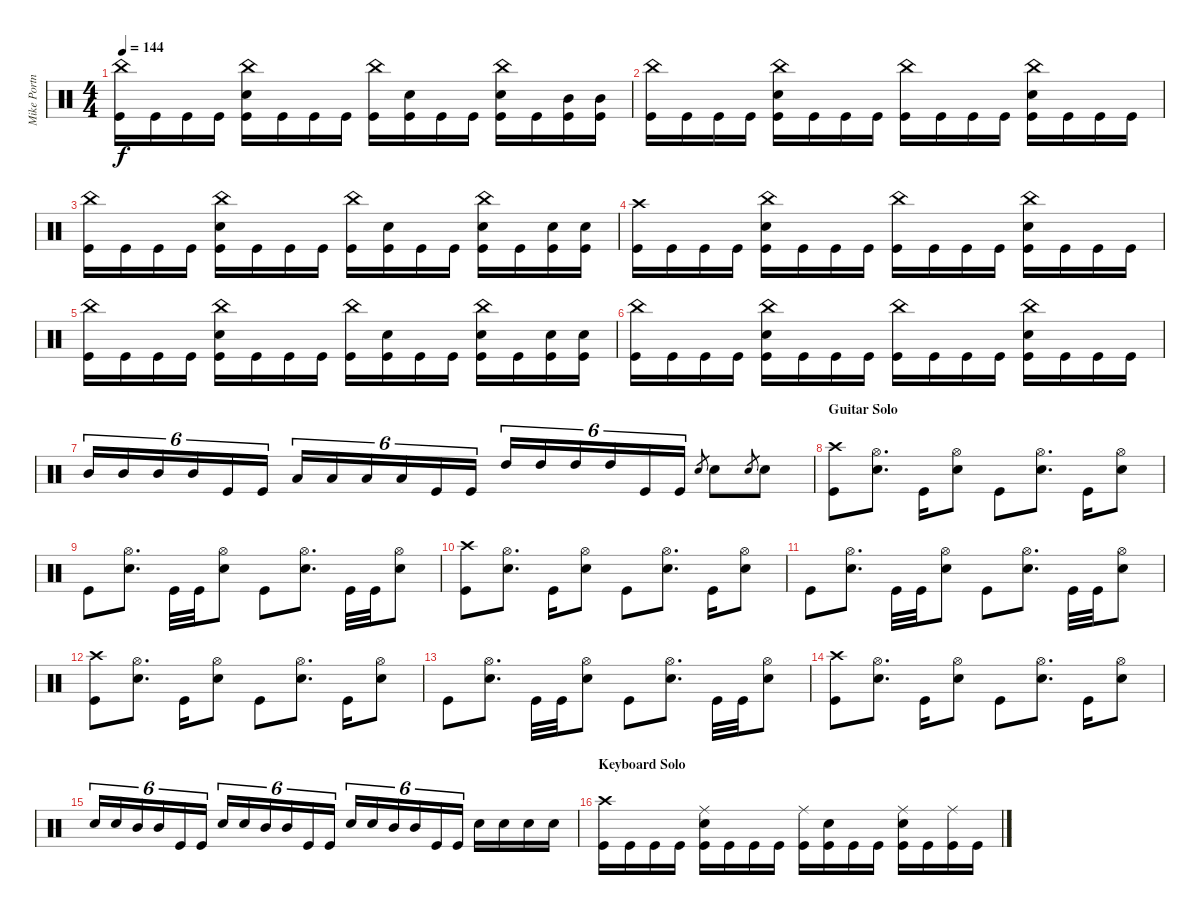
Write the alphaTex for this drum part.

\track ("Mike Portnoy" "Mike Portn") {instrument percussion}
\staff {score}
\articulation defaults
\ts (4 4)
\tempo 144
\clef neutral
\ks c
("China (hit)" "Kick (hit)").16{dy f} "Kick (hit)".16 "Kick (hit)".16 "Kick (hit)".16 ("China (hit)" "Electric Snare (hit)" "Kick (hit)").16 "Kick (hit)".16 "Kick (hit)".16 "Kick (hit)".16 ("China (hit)" "Kick (hit)").16 ("Electric Snare (hit)" "Kick (hit)").16 "Kick (hit)".16 "Kick (hit)".16 ("China (hit)" "Electric Snare (hit)" "Kick (hit)").16 "Kick (hit)".16 ("Mid Tom (hit)" "Kick (hit)").16 ("Mid Tom (hit)" "Kick (hit)").16 |
("China (hit)" "Kick (hit)").16 "Kick (hit)".16 "Kick (hit)".16 "Kick (hit)".16 ("China (hit)" "Electric Snare (hit)" "Kick (hit)").16 "Kick (hit)".16 "Kick (hit)".16 "Kick (hit)".16 ("China (hit)" "Kick (hit)").16 "Kick (hit)".16 "Kick (hit)".16 "Kick (hit)".16 ("China (hit)" "Electric Snare (hit)" "Kick (hit)").16 "Kick (hit)".16 "Kick (hit)".16 "Kick (hit)".16 |
("China (hit)" "Kick (hit)").16 "Kick (hit)".16 "Kick (hit)".16 "Kick (hit)".16 ("China (hit)" "Electric Snare (hit)" "Kick (hit)").16 "Kick (hit)".16 "Kick (hit)".16 "Kick (hit)".16 ("China (hit)" "Kick (hit)").16 ("Electric Snare (hit)" "Kick (hit)").16 "Kick (hit)".16 "Kick (hit)".16 ("China (hit)" "Electric Snare (hit)" "Kick (hit)").16 "Kick (hit)".16 ("Electric Snare (hit)" "Kick (hit)").16 ("Electric Snare (hit)" "Kick (hit)").16 |
("Crash high (hit)" "Kick (hit)").16 "Kick (hit)".16 "Kick (hit)".16 "Kick (hit)".16 ("China (hit)" "Electric Snare (hit)" "Kick (hit)").16 "Kick (hit)".16 "Kick (hit)".16 "Kick (hit)".16 ("China (hit)" "Kick (hit)").16 "Kick (hit)".16 "Kick (hit)".16 "Kick (hit)".16 ("China (hit)" "Electric Snare (hit)" "Kick (hit)").16 "Kick (hit)".16 "Kick (hit)".16 "Kick (hit)".16 |
("China (hit)" "Kick (hit)").16 "Kick (hit)".16 "Kick (hit)".16 "Kick (hit)".16 ("China (hit)" "Electric Snare (hit)" "Kick (hit)").16 "Kick (hit)".16 "Kick (hit)".16 "Kick (hit)".16 ("China (hit)" "Kick (hit)").16 ("Electric Snare (hit)" "Kick (hit)").16 "Kick (hit)".16 "Kick (hit)".16 ("China (hit)" "Electric Snare (hit)" "Kick (hit)").16 "Kick (hit)".16 ("Electric Snare (hit)" "Kick (hit)").16 ("Electric Snare (hit)" "Kick (hit)").16 |
("China (hit)" "Kick (hit)").16 "Kick (hit)".16 "Kick (hit)".16 "Kick (hit)".16 ("China (hit)" "Electric Snare (hit)" "Kick (hit)").16 "Kick (hit)".16 "Kick (hit)".16 "Kick (hit)".16 ("China (hit)" "Kick (hit)").16 "Kick (hit)".16 "Kick (hit)".16 "Kick (hit)".16 ("China (hit)" "Electric Snare (hit)" "Kick (hit)").16 "Kick (hit)".16 "Kick (hit)".16 "Kick (hit)".16 |
"Mid Tom (hit)".16{tu (6 4)} "Mid Tom (hit)".16{tu (6 4)} "Mid Tom (hit)".16{tu (6 4)} "Mid Tom (hit)".16{tu (6 4)} "Kick (hit)".16{tu (6 4)} "Kick (hit)".16{tu (6 4)} "Low Tom (hit)".16{tu (6 4)} "Low Tom (hit)".16{tu (6 4)} "Low Tom (hit)".16{tu (6 4)} "Low Tom (hit)".16{tu (6 4)} "Kick (hit)".16{tu (6 4)} "Kick (hit)".16{tu (6 4)} "High Tom (hit)".16{tu (6 4)} "High Tom (hit)".16{tu (6 4)} "High Tom (hit)".16{tu (6 4)} "High Tom (hit)".16{tu (6 4)} "Kick (hit)".16{tu (6 4)} "Kick (hit)".16{tu (6 4)} "Electric Snare (hit)".8{gr} "Electric Snare (hit)".8 "Electric Snare (hit)".8{gr} "Electric Snare (hit)".8 |
\section ("" "Guitar Solo")
("Crash high (hit)" "Kick (hit)").8 ("Hi-Hat (open)" "Electric Snare (hit)").8{d} "Kick (hit)".16 ("Hi-Hat (open)" "Electric Snare (hit)").8 "Kick (hit)".8 ("Hi-Hat (open)" "Electric Snare (hit)").8{d} "Kick (hit)".16 ("Hi-Hat (open)" "Electric Snare (hit)").8 |
"Kick (hit)".8 ("Hi-Hat (open)" "Electric Snare (hit)").8{d} "Kick (hit)".32 "Kick (hit)".32 ("Hi-Hat (open)" "Electric Snare (hit)").8 "Kick (hit)".8 ("Hi-Hat (open)" "Electric Snare (hit)").8{d} "Kick (hit)".32 "Kick (hit)".32 ("Hi-Hat (open)" "Electric Snare (hit)").8 |
("Crash high (hit)" "Kick (hit)").8 ("Hi-Hat (open)" "Electric Snare (hit)").8{d} "Kick (hit)".16 ("Hi-Hat (open)" "Electric Snare (hit)").8 "Kick (hit)".8 ("Hi-Hat (open)" "Electric Snare (hit)").8{d} "Kick (hit)".16 ("Hi-Hat (open)" "Electric Snare (hit)").8 |
"Kick (hit)".8 ("Hi-Hat (open)" "Electric Snare (hit)").8{d} "Kick (hit)".32 "Kick (hit)".32 ("Hi-Hat (open)" "Electric Snare (hit)").8 "Kick (hit)".8 ("Hi-Hat (open)" "Electric Snare (hit)").8{d} "Kick (hit)".32 "Kick (hit)".32 ("Hi-Hat (open)" "Electric Snare (hit)").8 |
("Crash high (hit)" "Kick (hit)").8 ("Hi-Hat (open)" "Electric Snare (hit)").8{d} "Kick (hit)".16 ("Hi-Hat (open)" "Electric Snare (hit)").8 "Kick (hit)".8 ("Hi-Hat (open)" "Electric Snare (hit)").8{d} "Kick (hit)".16 ("Hi-Hat (open)" "Electric Snare (hit)").8 |
"Kick (hit)".8 ("Hi-Hat (open)" "Electric Snare (hit)").8{d} "Kick (hit)".32 "Kick (hit)".32 ("Hi-Hat (open)" "Electric Snare (hit)").8 "Kick (hit)".8 ("Hi-Hat (open)" "Electric Snare (hit)").8{d} "Kick (hit)".32 "Kick (hit)".32 ("Hi-Hat (open)" "Electric Snare (hit)").8 |
("Crash high (hit)" "Kick (hit)").8 ("Hi-Hat (open)" "Electric Snare (hit)").8{d} "Kick (hit)".16 ("Hi-Hat (open)" "Electric Snare (hit)").8 "Kick (hit)".8 ("Hi-Hat (open)" "Electric Snare (hit)").8{d} "Kick (hit)".16 ("Hi-Hat (open)" "Electric Snare (hit)").8 |
"Electric Snare (hit)".16{tu (6 4)} "Electric Snare (hit)".16{tu (6 4)} "Mid Tom (hit)".16{tu (6 4)} "Mid Tom (hit)".16{tu (6 4)} "Kick (hit)".16{tu (6 4)} "Kick (hit)".16{tu (6 4)} "Electric Snare (hit)".16{tu (6 4)} "Electric Snare (hit)".16{tu (6 4)} "Mid Tom (hit)".16{tu (6 4)} "Mid Tom (hit)".16{tu (6 4)} "Kick (hit)".16{tu (6 4)} "Kick (hit)".16{tu (6 4)} "Electric Snare (hit)".16{tu (6 4)} "Electric Snare (hit)".16{tu (6 4)} "Mid Tom (hit)".16{tu (6 4)} "Mid Tom (hit)".16{tu (6 4)} "Kick (hit)".16{tu (6 4)} "Kick (hit)".16{tu (6 4)} "Electric Snare (hit)".16 "Electric Snare (hit)".16 "Electric Snare (hit)".16 "Electric Snare (hit)".16 |
\section ("" "Keyboard Solo")
("Crash high (hit)" "Kick (hit)").16 "Kick (hit)".16 "Kick (hit)".16 "Kick (hit)".16 ("Ride (middle)" "Electric Snare (hit)" "Kick (hit)").16 "Kick (hit)".16 "Kick (hit)".16 "Kick (hit)".16 ("Ride (middle)" "Kick (hit)").16 ("Electric Snare (hit)" "Kick (hit)").16 "Kick (hit)".16 "Kick (hit)".16 ("Ride (middle)" "Electric Snare (hit)" "Kick (hit)").16 "Kick (hit)".16 ("Ride (middle)" "Kick (hit)").16 "Kick (hit)".16
